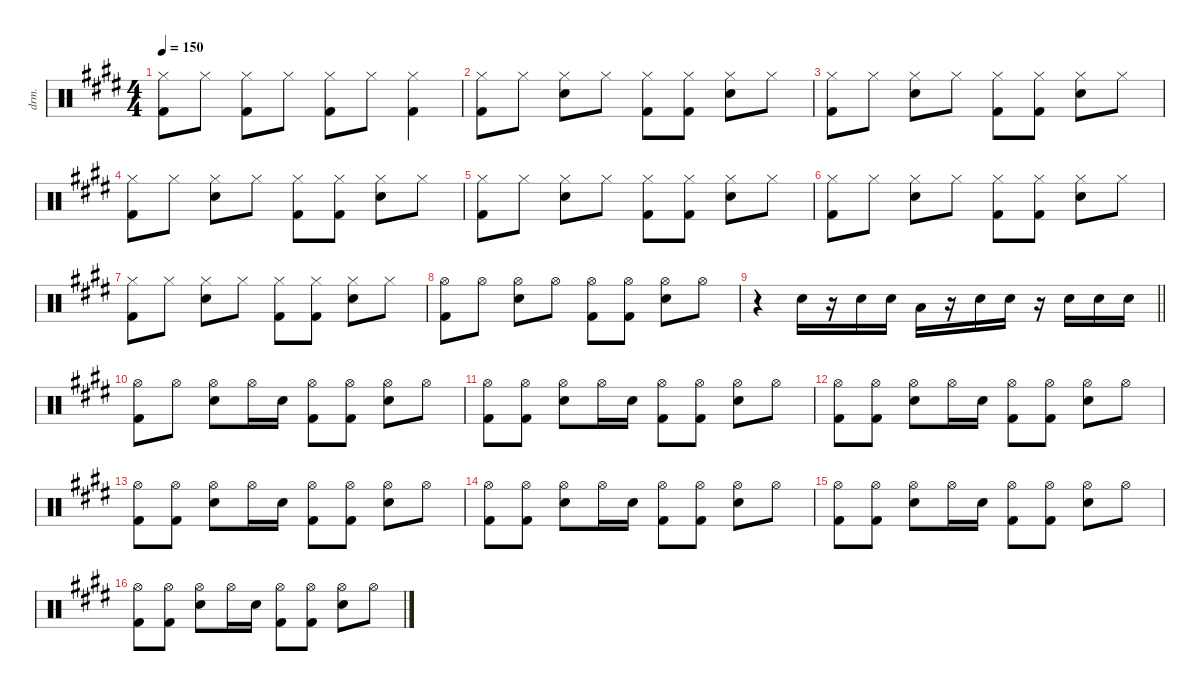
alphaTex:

\defaultSystemsLayout 4
\hideDynamics
\bracketExtendMode nobrackets
\track (" (Drums)" "drm.") {instrument percussion}
\staff {score}
\articulation defaults
\ts (4 4)
\tempo 150
\clef neutral
\ks c#minor
("Hi-Hat (closed)"{acc forcenatural} "Kick (hit) 2"{acc forcenatural}).8{dy f} "Hi-Hat (closed)"{acc forcenatural}.8 ("Hi-Hat (closed)"{acc forcenatural} "Kick (hit) 2"{acc forcenatural}).8 "Hi-Hat (closed)"{acc forcenatural}.8 ("Hi-Hat (closed)"{acc forcenatural} "Kick (hit) 2"{acc forcenatural}).8 "Hi-Hat (closed)"{acc forcenatural}.8 ("Hi-Hat (closed)"{acc forcenatural} "Kick (hit) 2"{acc forcenatural}).4 |
("Hi-Hat (closed)"{acc forcenatural} "Kick (hit) 2"{acc forcenatural}).8 "Hi-Hat (closed)"{acc forcenatural}.8 ("Hi-Hat (closed)"{acc forcenatural} "Snare (hit) 2"{acc forcenatural}).8 "Hi-Hat (closed)"{acc forcenatural}.8 ("Hi-Hat (closed)"{acc forcenatural} "Kick (hit) 2"{acc forcenatural}).8 ("Hi-Hat (closed)"{acc forcenatural} "Kick (hit) 2"{acc forcenatural}).8 ("Hi-Hat (closed)"{acc forcenatural} "Snare (hit) 2"{acc forcenatural}).8 "Hi-Hat (closed)"{acc forcenatural}.8 |
("Hi-Hat (closed)"{acc forcenatural} "Kick (hit) 2"{acc forcenatural}).8 "Hi-Hat (closed)"{acc forcenatural}.8 ("Hi-Hat (closed)"{acc forcenatural} "Snare (hit) 2"{acc forcenatural}).8 "Hi-Hat (closed)"{acc forcenatural}.8 ("Hi-Hat (closed)"{acc forcenatural} "Kick (hit) 2"{acc forcenatural}).8 ("Hi-Hat (closed)"{acc forcenatural} "Kick (hit) 2"{acc forcenatural}).8 ("Hi-Hat (closed)"{acc forcenatural} "Snare (hit) 2"{acc forcenatural}).8 "Hi-Hat (closed)"{acc forcenatural}.8 |
("Hi-Hat (closed)"{acc forcenatural} "Kick (hit) 2"{acc forcenatural}).8 "Hi-Hat (closed)"{acc forcenatural}.8 ("Hi-Hat (closed)"{acc forcenatural} "Snare (hit) 2"{acc forcenatural}).8 "Hi-Hat (closed)"{acc forcenatural}.8 ("Hi-Hat (closed)"{acc forcenatural} "Kick (hit) 2"{acc forcenatural}).8 ("Hi-Hat (closed)"{acc forcenatural} "Kick (hit) 2"{acc forcenatural}).8 ("Hi-Hat (closed)"{acc forcenatural} "Snare (hit) 2"{acc forcenatural}).8 "Hi-Hat (closed)"{acc forcenatural}.8 |
("Hi-Hat (closed)"{acc forcenatural} "Kick (hit) 2"{acc forcenatural}).8 "Hi-Hat (closed)"{acc forcenatural}.8 ("Hi-Hat (closed)"{acc forcenatural} "Snare (hit) 2"{acc forcenatural}).8 "Hi-Hat (closed)"{acc forcenatural}.8 ("Hi-Hat (closed)"{acc forcenatural} "Kick (hit) 2"{acc forcenatural}).8 ("Hi-Hat (closed)"{acc forcenatural} "Kick (hit) 2"{acc forcenatural}).8 ("Hi-Hat (closed)"{acc forcenatural} "Snare (hit) 2"{acc forcenatural}).8 "Hi-Hat (closed)"{acc forcenatural}.8 |
("Hi-Hat (closed)"{acc forcenatural} "Kick (hit) 2"{acc forcenatural}).8 "Hi-Hat (closed)"{acc forcenatural}.8 ("Hi-Hat (closed)"{acc forcenatural} "Snare (hit) 2"{acc forcenatural}).8 "Hi-Hat (closed)"{acc forcenatural}.8 ("Hi-Hat (closed)"{acc forcenatural} "Kick (hit) 2"{acc forcenatural}).8 ("Hi-Hat (closed)"{acc forcenatural} "Kick (hit) 2"{acc forcenatural}).8 ("Hi-Hat (closed)"{acc forcenatural} "Snare (hit) 2"{acc forcenatural}).8 "Hi-Hat (closed)"{acc forcenatural}.8 |
("Hi-Hat (closed)"{acc forcenatural} "Kick (hit) 2"{acc forcenatural}).8 "Hi-Hat (closed)"{acc forcenatural}.8 ("Hi-Hat (closed)"{acc forcenatural} "Snare (hit) 2"{acc forcenatural}).8 "Hi-Hat (closed)"{acc forcenatural}.8 ("Hi-Hat (closed)"{acc forcenatural} "Kick (hit) 2"{acc forcenatural}).8 ("Hi-Hat (closed)"{acc forcenatural} "Kick (hit) 2"{acc forcenatural}).8 ("Hi-Hat (closed)"{acc forcenatural} "Snare (hit) 2"{acc forcenatural}).8 "Hi-Hat (closed)"{acc forcenatural}.8 |
("Hi-Hat (open)"{acc forcenatural} "Kick (hit) 2"{acc forcenatural}).8 "Hi-Hat (open)"{acc forcenatural}.8 ("Hi-Hat (open)"{acc forcenatural} "Snare (hit) 2"{acc forcenatural}).8 "Hi-Hat (open)"{acc forcenatural}.8 ("Hi-Hat (open)"{acc forcenatural} "Kick (hit) 2"{acc forcenatural}).8 ("Hi-Hat (open)"{acc forcenatural} "Kick (hit) 2"{acc forcenatural}).8 ("Hi-Hat (open)"{acc forcenatural} "Snare (hit) 2"{acc forcenatural}).8 "Hi-Hat (open)"{acc forcenatural}.8 |
\barLineRight lightlight
r.4 "Snare (hit) 2"{acc forcenatural}.16 r.16 "Snare (hit) 2"{acc forcenatural}.16 "Snare (hit) 2"{acc forcenatural}.16 "Low Tom (hit)"{acc forcenatural}.16 r.16 "Snare (hit) 2"{acc forcenatural}.16 "Snare (hit) 2"{acc forcenatural}.16 r.16 "Snare (hit) 2"{acc forcenatural}.16 "Snare (hit) 2"{acc forcenatural}.16 "Snare (hit) 2"{acc forcenatural}.16 |
("Hi-Hat (open)"{acc forcenatural} "Kick (hit) 2"{acc forcenatural}).8 "Hi-Hat (open)"{acc forcenatural}.8 ("Hi-Hat (open)"{acc forcenatural} "Snare (hit) 2"{acc forcenatural}).8 "Hi-Hat (open)"{acc forcenatural}.16 "Snare (hit) 2"{acc forcenatural}.16{dy mf} ("Hi-Hat (open)"{acc forcenatural} "Kick (hit) 2"{acc forcenatural}).8{dy f} ("Hi-Hat (open)"{acc forcenatural} "Kick (hit) 2"{acc forcenatural}).8 ("Hi-Hat (open)"{acc forcenatural} "Snare (hit) 2"{acc forcenatural}).8 "Hi-Hat (open)"{acc forcenatural}.8 |
("Hi-Hat (open)"{acc forcenatural} "Kick (hit) 2"{acc forcenatural}).8 ("Hi-Hat (open)"{acc forcenatural} "Kick (hit) 2"{acc forcenatural}).8 ("Hi-Hat (open)"{acc forcenatural} "Snare (hit) 2"{acc forcenatural}).8 "Hi-Hat (open)"{acc forcenatural}.16 "Snare (hit) 2"{acc forcenatural}.16{dy mf} ("Hi-Hat (open)"{acc forcenatural} "Kick (hit) 2"{acc forcenatural}).8{dy f} ("Hi-Hat (open)"{acc forcenatural} "Kick (hit) 2"{acc forcenatural}).8 ("Hi-Hat (open)"{acc forcenatural} "Snare (hit) 2"{acc forcenatural}).8 "Hi-Hat (open)"{acc forcenatural}.8 |
("Hi-Hat (open)"{acc forcenatural} "Kick (hit) 2"{acc forcenatural}).8 ("Hi-Hat (open)"{acc forcenatural} "Kick (hit) 2"{acc forcenatural}).8 ("Hi-Hat (open)"{acc forcenatural} "Snare (hit) 2"{acc forcenatural}).8 "Hi-Hat (open)"{acc forcenatural}.16 "Snare (hit) 2"{acc forcenatural}.16{dy mf} ("Hi-Hat (open)"{acc forcenatural} "Kick (hit) 2"{acc forcenatural}).8{dy f} ("Hi-Hat (open)"{acc forcenatural} "Kick (hit) 2"{acc forcenatural}).8 ("Hi-Hat (open)"{acc forcenatural} "Snare (hit) 2"{acc forcenatural}).8 "Hi-Hat (open)"{acc forcenatural}.8 |
("Hi-Hat (open)"{acc forcenatural} "Kick (hit) 2"{acc forcenatural}).8 ("Hi-Hat (open)"{acc forcenatural} "Kick (hit) 2"{acc forcenatural}).8 ("Hi-Hat (open)"{acc forcenatural} "Snare (hit) 2"{acc forcenatural}).8 "Hi-Hat (open)"{acc forcenatural}.16 "Snare (hit) 2"{acc forcenatural}.16{dy mf} ("Hi-Hat (open)"{acc forcenatural} "Kick (hit) 2"{acc forcenatural}).8{dy f} ("Hi-Hat (open)"{acc forcenatural} "Kick (hit) 2"{acc forcenatural}).8 ("Hi-Hat (open)"{acc forcenatural} "Snare (hit) 2"{acc forcenatural}).8 "Hi-Hat (open)"{acc forcenatural}.8 |
("Hi-Hat (open)"{acc forcenatural} "Kick (hit) 2"{acc forcenatural}).8 ("Hi-Hat (open)"{acc forcenatural} "Kick (hit) 2"{acc forcenatural}).8 ("Hi-Hat (open)"{acc forcenatural} "Snare (hit) 2"{acc forcenatural}).8 "Hi-Hat (open)"{acc forcenatural}.16 "Snare (hit) 2"{acc forcenatural}.16{dy mf} ("Hi-Hat (open)"{acc forcenatural} "Kick (hit) 2"{acc forcenatural}).8{dy f} ("Hi-Hat (open)"{acc forcenatural} "Kick (hit) 2"{acc forcenatural}).8 ("Hi-Hat (open)"{acc forcenatural} "Snare (hit) 2"{acc forcenatural}).8 "Hi-Hat (open)"{acc forcenatural}.8 |
("Hi-Hat (open)"{acc forcenatural} "Kick (hit) 2"{acc forcenatural}).8 ("Hi-Hat (open)"{acc forcenatural} "Kick (hit) 2"{acc forcenatural}).8 ("Hi-Hat (open)"{acc forcenatural} "Snare (hit) 2"{acc forcenatural}).8 "Hi-Hat (open)"{acc forcenatural}.16 "Snare (hit) 2"{acc forcenatural}.16{dy mf} ("Hi-Hat (open)"{acc forcenatural} "Kick (hit) 2"{acc forcenatural}).8{dy f} ("Hi-Hat (open)"{acc forcenatural} "Kick (hit) 2"{acc forcenatural}).8 ("Hi-Hat (open)"{acc forcenatural} "Snare (hit) 2"{acc forcenatural}).8 "Hi-Hat (open)"{acc forcenatural}.8 |
("Hi-Hat (open)"{acc forcenatural} "Kick (hit) 2"{acc forcenatural}).8 ("Hi-Hat (open)"{acc forcenatural} "Kick (hit) 2"{acc forcenatural}).8 ("Hi-Hat (open)"{acc forcenatural} "Snare (hit) 2"{acc forcenatural}).8 "Hi-Hat (open)"{acc forcenatural}.16 "Snare (hit) 2"{acc forcenatural}.16{dy mf} ("Hi-Hat (open)"{acc forcenatural} "Kick (hit) 2"{acc forcenatural}).8{dy f} ("Hi-Hat (open)"{acc forcenatural} "Kick (hit) 2"{acc forcenatural}).8 ("Hi-Hat (open)"{acc forcenatural} "Snare (hit) 2"{acc forcenatural}).8 "Hi-Hat (open)"{acc forcenatural}.8
